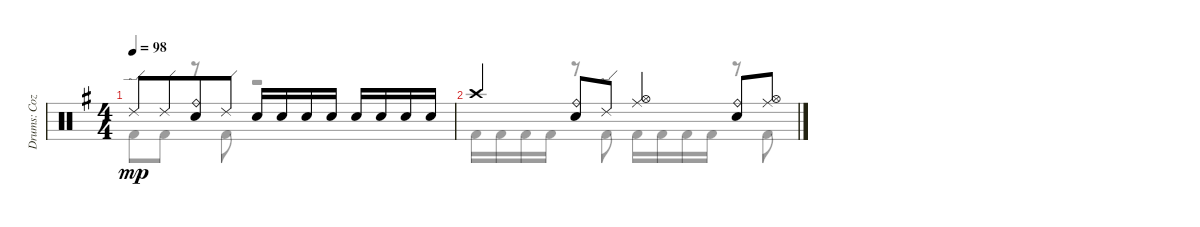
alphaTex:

\track ("Drums: Cozy" "Drums: Coz") {instrument percussion}
\staff {score}
\articulation defaults
\voice
\ts (4 4)
\tempo 98
\clef neutral
\ks g "Ride (edge) 2".8{dy mp} "Ride (edge) 2".8{beam merge}
("Ride (bell)" "Snare (hit) 2").8 "Ride (edge) 2".8 "Snare (hit) 2".16 "Snare (hit) 2".16{beam merge} "Snare (hit) 2".16 "Snare (hit) 2".16 "Snare (hit) 2".16 "Snare (hit) 2".16{beam merge} "Snare (hit) 2".16 "Snare (hit) 2".16 |
"Crash high (hit)".4 ("Ride (bell)" "Snare (hit) 2").8 "Ride (edge) 2".8 ("Ride (middle)" "Hi-Hat (open)").4 ("Ride (bell)" "Snare (hit) 2").8 ("Ride (middle)" "Hi-Hat (open)").8
\voice
\clef neutral
\ottava regular
\simile none
\ks g "Kick (hit) 2".8{dy mp} "Kick (hit) 2".8
r.8 "Kick (hit) 2".8 r.2 |
"Kick (hit) 2".16 "Kick (hit) 2".16 "Kick (hit) 2".16 "Kick (hit) 2".16 r.8 "Kick (hit) 2".8 "Kick (hit) 2".16 "Kick (hit) 2".16 "Kick (hit) 2".16 "Kick (hit) 2".16 r.8 "Kick (hit) 2".8
